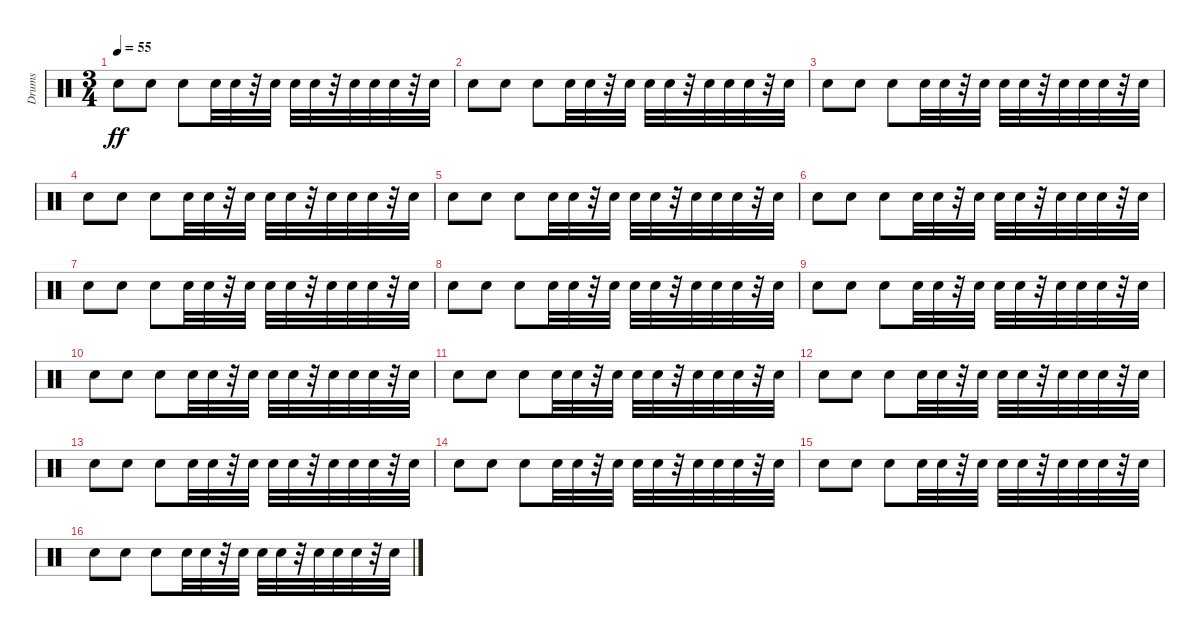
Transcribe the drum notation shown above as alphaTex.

\track ("Drums" "Drums") {instrument percussion}
\staff {score}
\articulation defaults
\ts (3 4)
\tempo 55
\clef neutral
\ks c "Snare (hit) 2".8{dy ff} "Snare (hit) 2".8 "Snare (hit) 2".8 "Snare (hit) 2".32 "Snare (hit) 2".32
r.32 "Snare (hit) 2".32 "Snare (hit) 2".32 "Snare (hit) 2".32 r.32 "Snare (hit) 2".32 "Snare (hit) 2".32 "Snare (hit) 2".32 r.32 "Snare (hit) 2".32 |
"Snare (hit) 2".8 "Snare (hit) 2".8 "Snare (hit) 2".8 "Snare (hit) 2".32 "Snare (hit) 2".32 r.32 "Snare (hit) 2".32 "Snare (hit) 2".32 "Snare (hit) 2".32 r.32 "Snare (hit) 2".32 "Snare (hit) 2".32 "Snare (hit) 2".32 r.32 "Snare (hit) 2".32 |
"Snare (hit) 2".8 "Snare (hit) 2".8 "Snare (hit) 2".8 "Snare (hit) 2".32 "Snare (hit) 2".32 r.32 "Snare (hit) 2".32 "Snare (hit) 2".32 "Snare (hit) 2".32 r.32 "Snare (hit) 2".32 "Snare (hit) 2".32 "Snare (hit) 2".32 r.32 "Snare (hit) 2".32 |
"Snare (hit) 2".8 "Snare (hit) 2".8 "Snare (hit) 2".8 "Snare (hit) 2".32 "Snare (hit) 2".32 r.32 "Snare (hit) 2".32 "Snare (hit) 2".32 "Snare (hit) 2".32 r.32 "Snare (hit) 2".32 "Snare (hit) 2".32 "Snare (hit) 2".32 r.32 "Snare (hit) 2".32 |
"Snare (hit) 2".8 "Snare (hit) 2".8 "Snare (hit) 2".8 "Snare (hit) 2".32 "Snare (hit) 2".32 r.32 "Snare (hit) 2".32 "Snare (hit) 2".32 "Snare (hit) 2".32 r.32 "Snare (hit) 2".32 "Snare (hit) 2".32 "Snare (hit) 2".32 r.32 "Snare (hit) 2".32 |
"Snare (hit) 2".8 "Snare (hit) 2".8 "Snare (hit) 2".8 "Snare (hit) 2".32 "Snare (hit) 2".32 r.32 "Snare (hit) 2".32 "Snare (hit) 2".32 "Snare (hit) 2".32 r.32 "Snare (hit) 2".32 "Snare (hit) 2".32 "Snare (hit) 2".32 r.32 "Snare (hit) 2".32 |
"Snare (hit) 2".8 "Snare (hit) 2".8 "Snare (hit) 2".8 "Snare (hit) 2".32 "Snare (hit) 2".32 r.32 "Snare (hit) 2".32 "Snare (hit) 2".32 "Snare (hit) 2".32 r.32 "Snare (hit) 2".32 "Snare (hit) 2".32 "Snare (hit) 2".32 r.32 "Snare (hit) 2".32 |
"Snare (hit) 2".8 "Snare (hit) 2".8 "Snare (hit) 2".8 "Snare (hit) 2".32 "Snare (hit) 2".32 r.32 "Snare (hit) 2".32 "Snare (hit) 2".32 "Snare (hit) 2".32 r.32 "Snare (hit) 2".32 "Snare (hit) 2".32 "Snare (hit) 2".32 r.32 "Snare (hit) 2".32 |
"Snare (hit) 2".8 "Snare (hit) 2".8 "Snare (hit) 2".8 "Snare (hit) 2".32 "Snare (hit) 2".32 r.32 "Snare (hit) 2".32 "Snare (hit) 2".32 "Snare (hit) 2".32 r.32 "Snare (hit) 2".32 "Snare (hit) 2".32 "Snare (hit) 2".32 r.32 "Snare (hit) 2".32 |
"Snare (hit) 2".8 "Snare (hit) 2".8 "Snare (hit) 2".8 "Snare (hit) 2".32 "Snare (hit) 2".32 r.32 "Snare (hit) 2".32 "Snare (hit) 2".32 "Snare (hit) 2".32 r.32 "Snare (hit) 2".32 "Snare (hit) 2".32 "Snare (hit) 2".32 r.32 "Snare (hit) 2".32 |
"Snare (hit) 2".8 "Snare (hit) 2".8 "Snare (hit) 2".8 "Snare (hit) 2".32 "Snare (hit) 2".32 r.32 "Snare (hit) 2".32 "Snare (hit) 2".32 "Snare (hit) 2".32 r.32 "Snare (hit) 2".32 "Snare (hit) 2".32 "Snare (hit) 2".32 r.32 "Snare (hit) 2".32 |
"Snare (hit) 2".8 "Snare (hit) 2".8 "Snare (hit) 2".8 "Snare (hit) 2".32 "Snare (hit) 2".32 r.32 "Snare (hit) 2".32 "Snare (hit) 2".32 "Snare (hit) 2".32 r.32 "Snare (hit) 2".32 "Snare (hit) 2".32 "Snare (hit) 2".32 r.32 "Snare (hit) 2".32 |
"Snare (hit) 2".8 "Snare (hit) 2".8 "Snare (hit) 2".8 "Snare (hit) 2".32 "Snare (hit) 2".32 r.32 "Snare (hit) 2".32 "Snare (hit) 2".32 "Snare (hit) 2".32 r.32 "Snare (hit) 2".32 "Snare (hit) 2".32 "Snare (hit) 2".32 r.32 "Snare (hit) 2".32 |
"Snare (hit) 2".8 "Snare (hit) 2".8 "Snare (hit) 2".8 "Snare (hit) 2".32 "Snare (hit) 2".32 r.32 "Snare (hit) 2".32 "Snare (hit) 2".32 "Snare (hit) 2".32 r.32 "Snare (hit) 2".32 "Snare (hit) 2".32 "Snare (hit) 2".32 r.32 "Snare (hit) 2".32 |
"Snare (hit) 2".8 "Snare (hit) 2".8 "Snare (hit) 2".8 "Snare (hit) 2".32 "Snare (hit) 2".32 r.32 "Snare (hit) 2".32 "Snare (hit) 2".32 "Snare (hit) 2".32 r.32 "Snare (hit) 2".32 "Snare (hit) 2".32 "Snare (hit) 2".32 r.32 "Snare (hit) 2".32 |
"Snare (hit) 2".8 "Snare (hit) 2".8 "Snare (hit) 2".8 "Snare (hit) 2".32 "Snare (hit) 2".32 r.32 "Snare (hit) 2".32 "Snare (hit) 2".32 "Snare (hit) 2".32 r.32 "Snare (hit) 2".32 "Snare (hit) 2".32 "Snare (hit) 2".32 r.32 "Snare (hit) 2".32
